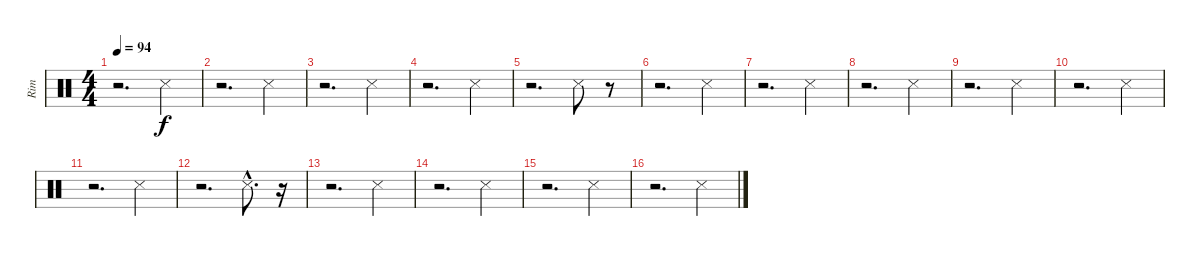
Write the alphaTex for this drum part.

\track ("Rim" "Rim") {instrument percussion}
\staff {score}
\articulation defaults
\ts (4 4)
\tempo 94
\clef neutral
\ks c
r.2{d dy f} "Snare (side stick) 3".4 |
r.2{d} "Snare (side stick) 3".4 |
r.2{d} "Snare (side stick) 3".4 |
r.2{d} "Snare (side stick) 3".4 |
r.2{d} "Snare (side stick) 3".8 r.8 |
r.2{d} "Snare (side stick) 3".4 |
r.2{d} "Snare (side stick) 3".4 |
r.2{d} "Snare (side stick) 3".4 |
r.2{d} "Snare (side stick) 3".4 |
r.2{d} "Snare (side stick) 3".4 |
r.2{d} "Snare (side stick) 3".4 |
r.2{d} "Snare (side stick) 3"{hac}.8{d} r.16 |
r.2{d} "Snare (side stick) 3".4 |
r.2{d} "Snare (side stick) 3".4 |
r.2{d} "Snare (side stick) 3".4 |
r.2{d} "Snare (side stick) 3".4
